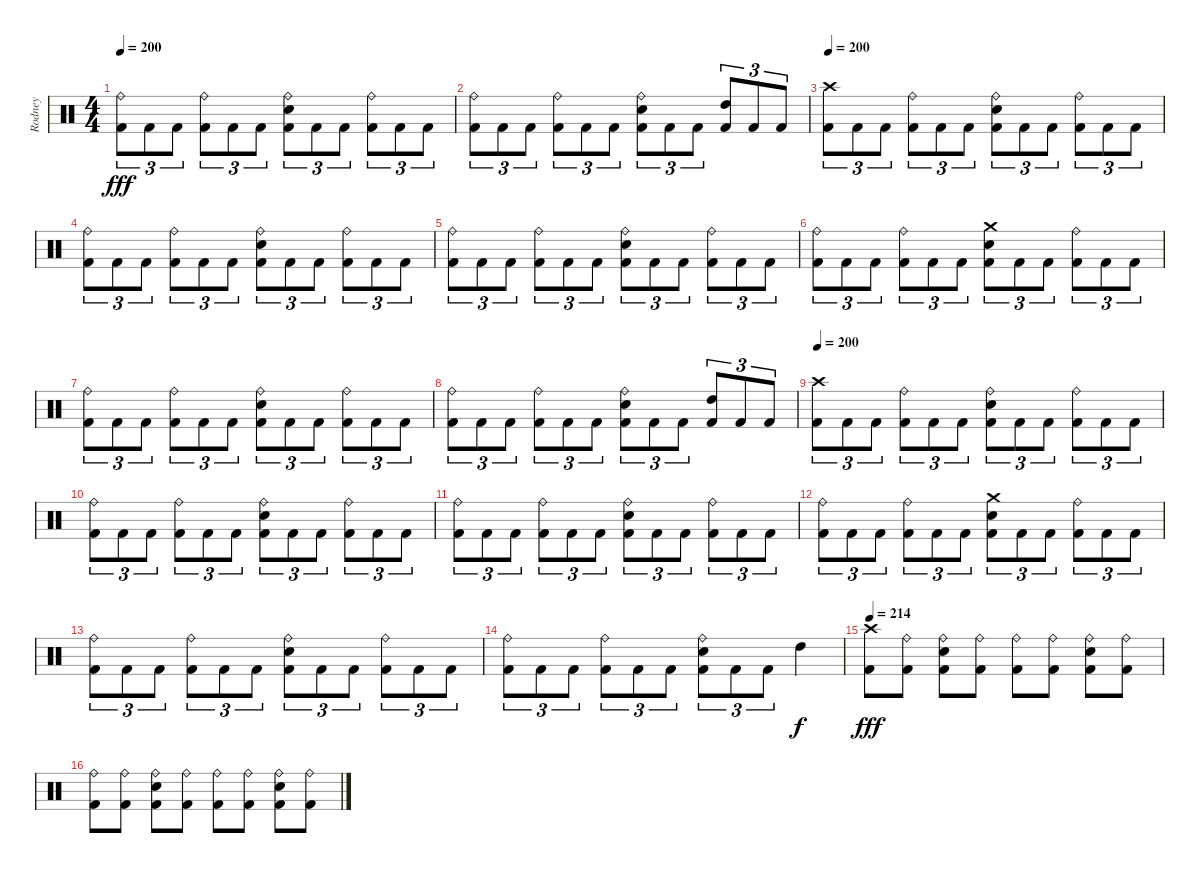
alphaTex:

\track ("Rodney" "Rodney") {instrument percussion}
\staff {score}
\articulation defaults
\ts (4 4)
\tempo 200
\clef neutral
\ks c
("Ride (bell)" "Kick (hit) 2").8{tu (3 2) dy fff} "Kick (hit) 2".8{tu (3 2)} "Kick (hit) 2".8{tu (3 2)} ("Ride (bell)" "Kick (hit) 2").8{tu (3 2)} "Kick (hit) 2".8{tu (3 2)} "Kick (hit) 2".8{tu (3 2)} ("Ride (bell)" "Snare (hit) 2" "Kick (hit) 2").8{tu (3 2)} "Kick (hit) 2".8{tu (3 2)} "Kick (hit) 2".8{tu (3 2)} ("Ride (bell)" "Kick (hit) 2").8{tu (3 2)} "Kick (hit) 2".8{tu (3 2)} "Kick (hit) 2".8{tu (3 2)} |
("Ride (bell)" "Kick (hit) 2").8{tu (3 2)} "Kick (hit) 2".8{tu (3 2)} "Kick (hit) 2".8{tu (3 2)} ("Ride (bell)" "Kick (hit) 2").8{tu (3 2)} "Kick (hit) 2".8{tu (3 2)} "Kick (hit) 2".8{tu (3 2)} ("Ride (bell)" "Snare (hit) 2" "Kick (hit) 2").8{tu (3 2)} "Kick (hit) 2".8{tu (3 2)} "Kick (hit) 2".8{tu (3 2)} ("High Tom (hit)" "Kick (hit) 2").8{tu (3 2)} "Kick (hit) 2".8{tu (3 2)} "Kick (hit) 2".8{tu (3 2)} |
\tempo 200
("Crash high (hit)" "Kick (hit) 2").8{tu (3 2)} "Kick (hit) 2".8{tu (3 2)} "Kick (hit) 2".8{tu (3 2)} ("Ride (bell)" "Kick (hit) 2").8{tu (3 2)} "Kick (hit) 2".8{tu (3 2)} "Kick (hit) 2".8{tu (3 2)} ("Ride (bell)" "Snare (hit) 2" "Kick (hit) 2").8{tu (3 2)} "Kick (hit) 2".8{tu (3 2)} "Kick (hit) 2".8{tu (3 2)} ("Ride (bell)" "Kick (hit) 2").8{tu (3 2)} "Kick (hit) 2".8{tu (3 2)} "Kick (hit) 2".8{tu (3 2)} |
("Ride (bell)" "Kick (hit) 2").8{tu (3 2)} "Kick (hit) 2".8{tu (3 2)} "Kick (hit) 2".8{tu (3 2)} ("Ride (bell)" "Kick (hit) 2").8{tu (3 2)} "Kick (hit) 2".8{tu (3 2)} "Kick (hit) 2".8{tu (3 2)} ("Ride (bell)" "Snare (hit) 2" "Kick (hit) 2").8{tu (3 2)} "Kick (hit) 2".8{tu (3 2)} "Kick (hit) 2".8{tu (3 2)} ("Ride (bell)" "Kick (hit) 2").8{tu (3 2)} "Kick (hit) 2".8{tu (3 2)} "Kick (hit) 2".8{tu (3 2)} |
("Ride (bell)" "Kick (hit) 2").8{tu (3 2)} "Kick (hit) 2".8{tu (3 2)} "Kick (hit) 2".8{tu (3 2)} ("Ride (bell)" "Kick (hit) 2").8{tu (3 2)} "Kick (hit) 2".8{tu (3 2)} "Kick (hit) 2".8{tu (3 2)} ("Ride (bell)" "Snare (hit) 2" "Kick (hit) 2").8{tu (3 2)} "Kick (hit) 2".8{tu (3 2)} "Kick (hit) 2".8{tu (3 2)} ("Ride (bell)" "Kick (hit) 2").8{tu (3 2)} "Kick (hit) 2".8{tu (3 2)} "Kick (hit) 2".8{tu (3 2)} |
("Ride (bell)" "Kick (hit) 2").8{tu (3 2)} "Kick (hit) 2".8{tu (3 2)} "Kick (hit) 2".8{tu (3 2)} ("Ride (bell)" "Kick (hit) 2").8{tu (3 2)} "Kick (hit) 2".8{tu (3 2)} "Kick (hit) 2".8{tu (3 2)} ("Crash medium (hit)" "Snare (hit) 2" "Kick (hit) 2").8{tu (3 2)} "Kick (hit) 2".8{tu (3 2)} "Kick (hit) 2".8{tu (3 2)} ("Ride (bell)" "Kick (hit) 2").8{tu (3 2)} "Kick (hit) 2".8{tu (3 2)} "Kick (hit) 2".8{tu (3 2)} |
("Ride (bell)" "Kick (hit) 2").8{tu (3 2)} "Kick (hit) 2".8{tu (3 2)} "Kick (hit) 2".8{tu (3 2)} ("Ride (bell)" "Kick (hit) 2").8{tu (3 2)} "Kick (hit) 2".8{tu (3 2)} "Kick (hit) 2".8{tu (3 2)} ("Ride (bell)" "Snare (hit) 2" "Kick (hit) 2").8{tu (3 2)} "Kick (hit) 2".8{tu (3 2)} "Kick (hit) 2".8{tu (3 2)} ("Ride (bell)" "Kick (hit) 2").8{tu (3 2)} "Kick (hit) 2".8{tu (3 2)} "Kick (hit) 2".8{tu (3 2)} |
("Ride (bell)" "Kick (hit) 2").8{tu (3 2)} "Kick (hit) 2".8{tu (3 2)} "Kick (hit) 2".8{tu (3 2)} ("Ride (bell)" "Kick (hit) 2").8{tu (3 2)} "Kick (hit) 2".8{tu (3 2)} "Kick (hit) 2".8{tu (3 2)} ("Ride (bell)" "Snare (hit) 2" "Kick (hit) 2").8{tu (3 2)} "Kick (hit) 2".8{tu (3 2)} "Kick (hit) 2".8{tu (3 2)} ("High Tom (hit)" "Kick (hit) 2").8{tu (3 2)} "Kick (hit) 2".8{tu (3 2)} "Kick (hit) 2".8{tu (3 2)} |
\tempo 200
("Crash high (hit)" "Kick (hit) 2").8{tu (3 2)} "Kick (hit) 2".8{tu (3 2)} "Kick (hit) 2".8{tu (3 2)} ("Ride (bell)" "Kick (hit) 2").8{tu (3 2)} "Kick (hit) 2".8{tu (3 2)} "Kick (hit) 2".8{tu (3 2)} ("Ride (bell)" "Snare (hit) 2" "Kick (hit) 2").8{tu (3 2)} "Kick (hit) 2".8{tu (3 2)} "Kick (hit) 2".8{tu (3 2)} ("Ride (bell)" "Kick (hit) 2").8{tu (3 2)} "Kick (hit) 2".8{tu (3 2)} "Kick (hit) 2".8{tu (3 2)} |
("Ride (bell)" "Kick (hit) 2").8{tu (3 2)} "Kick (hit) 2".8{tu (3 2)} "Kick (hit) 2".8{tu (3 2)} ("Ride (bell)" "Kick (hit) 2").8{tu (3 2)} "Kick (hit) 2".8{tu (3 2)} "Kick (hit) 2".8{tu (3 2)} ("Ride (bell)" "Snare (hit) 2" "Kick (hit) 2").8{tu (3 2)} "Kick (hit) 2".8{tu (3 2)} "Kick (hit) 2".8{tu (3 2)} ("Ride (bell)" "Kick (hit) 2").8{tu (3 2)} "Kick (hit) 2".8{tu (3 2)} "Kick (hit) 2".8{tu (3 2)} |
("Ride (bell)" "Kick (hit) 2").8{tu (3 2)} "Kick (hit) 2".8{tu (3 2)} "Kick (hit) 2".8{tu (3 2)} ("Ride (bell)" "Kick (hit) 2").8{tu (3 2)} "Kick (hit) 2".8{tu (3 2)} "Kick (hit) 2".8{tu (3 2)} ("Ride (bell)" "Snare (hit) 2" "Kick (hit) 2").8{tu (3 2)} "Kick (hit) 2".8{tu (3 2)} "Kick (hit) 2".8{tu (3 2)} ("Ride (bell)" "Kick (hit) 2").8{tu (3 2)} "Kick (hit) 2".8{tu (3 2)} "Kick (hit) 2".8{tu (3 2)} |
("Ride (bell)" "Kick (hit) 2").8{tu (3 2)} "Kick (hit) 2".8{tu (3 2)} "Kick (hit) 2".8{tu (3 2)} ("Ride (bell)" "Kick (hit) 2").8{tu (3 2)} "Kick (hit) 2".8{tu (3 2)} "Kick (hit) 2".8{tu (3 2)} ("Crash medium (hit)" "Snare (hit) 2" "Kick (hit) 2").8{tu (3 2)} "Kick (hit) 2".8{tu (3 2)} "Kick (hit) 2".8{tu (3 2)} ("Ride (bell)" "Kick (hit) 2").8{tu (3 2)} "Kick (hit) 2".8{tu (3 2)} "Kick (hit) 2".8{tu (3 2)} |
("Ride (bell)" "Kick (hit) 2").8{tu (3 2)} "Kick (hit) 2".8{tu (3 2)} "Kick (hit) 2".8{tu (3 2)} ("Ride (bell)" "Kick (hit) 2").8{tu (3 2)} "Kick (hit) 2".8{tu (3 2)} "Kick (hit) 2".8{tu (3 2)} ("Ride (bell)" "Snare (hit) 2" "Kick (hit) 2").8{tu (3 2)} "Kick (hit) 2".8{tu (3 2)} "Kick (hit) 2".8{tu (3 2)} ("Ride (bell)" "Kick (hit) 2").8{tu (3 2)} "Kick (hit) 2".8{tu (3 2)} "Kick (hit) 2".8{tu (3 2)} |
("Ride (bell)" "Kick (hit) 2").8{tu (3 2)} "Kick (hit) 2".8{tu (3 2)} "Kick (hit) 2".8{tu (3 2)} ("Ride (bell)" "Kick (hit) 2").8{tu (3 2)} "Kick (hit) 2".8{tu (3 2)} "Kick (hit) 2".8{tu (3 2)} ("Ride (bell)" "Snare (hit) 2" "Kick (hit) 2").8{tu (3 2)} "Kick (hit) 2".8{tu (3 2)} "Kick (hit) 2".8{tu (3 2)} "High Tom (hit)".4{dy f} |
\tempo 214
("Crash high (hit)" "Kick (hit) 2").8{dy fff} ("Ride (bell)" "Kick (hit) 2").8 ("Ride (bell)" "Snare (hit) 2" "Kick (hit) 2").8 ("Ride (bell)" "Kick (hit) 2").8 ("Ride (bell)" "Kick (hit) 2").8 ("Ride (bell)" "Kick (hit) 2").8 ("Ride (bell)" "Snare (hit) 2" "Kick (hit) 2").8 ("Ride (bell)" "Kick (hit) 2").8 |
("Ride (bell)" "Kick (hit) 2").8 ("Ride (bell)" "Kick (hit) 2").8 ("Ride (bell)" "Snare (hit) 2" "Kick (hit) 2").8 ("Ride (bell)" "Kick (hit) 2").8 ("Ride (bell)" "Kick (hit) 2").8 ("Ride (bell)" "Kick (hit) 2").8 ("Ride (bell)" "Snare (hit) 2" "Kick (hit) 2").8 ("Ride (bell)" "Kick (hit) 2").8
